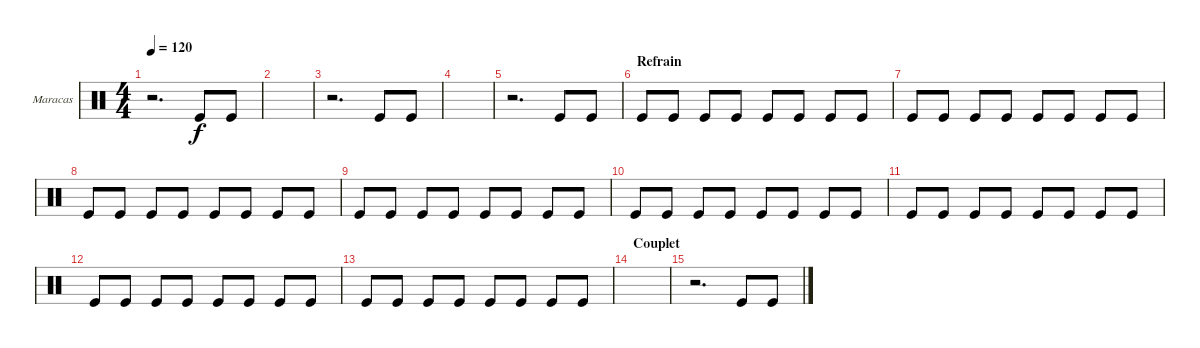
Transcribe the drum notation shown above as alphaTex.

\defaultSystemsLayout 4
\bracketExtendMode groupsimilarinstruments
\firstSystemTrackNameOrientation horizontal
\otherSystemsTrackNameOrientation horizontal
\track ("Maracas" "Maracas") {multiBarRest instrument percussion}
\staff {score}
\articulation defaults
\ts (4 4)
\tempo 120
\clef neutral
\ks c
r.2{d dy f} "Kick (hit)".8 "Kick (hit)".8 |
|
r.2{d} "Kick (hit)".8 "Kick (hit)".8 |
|
r.2{d} "Kick (hit)".8 "Kick (hit)".8 |
\section ("" "Refrain")
"Kick (hit)".8 "Kick (hit)".8 "Kick (hit)".8 "Kick (hit)".8 "Kick (hit)".8 "Kick (hit)".8 "Kick (hit)".8 "Kick (hit)".8 |
"Kick (hit)".8 "Kick (hit)".8 "Kick (hit)".8 "Kick (hit)".8 "Kick (hit)".8 "Kick (hit)".8 "Kick (hit)".8 "Kick (hit)".8 |
"Kick (hit)".8 "Kick (hit)".8 "Kick (hit)".8 "Kick (hit)".8 "Kick (hit)".8 "Kick (hit)".8 "Kick (hit)".8 "Kick (hit)".8 |
"Kick (hit)".8 "Kick (hit)".8 "Kick (hit)".8 "Kick (hit)".8 "Kick (hit)".8 "Kick (hit)".8 "Kick (hit)".8 "Kick (hit)".8 |
"Kick (hit)".8 "Kick (hit)".8 "Kick (hit)".8 "Kick (hit)".8 "Kick (hit)".8 "Kick (hit)".8 "Kick (hit)".8 "Kick (hit)".8 |
"Kick (hit)".8 "Kick (hit)".8 "Kick (hit)".8 "Kick (hit)".8 "Kick (hit)".8 "Kick (hit)".8 "Kick (hit)".8 "Kick (hit)".8 |
"Kick (hit)".8 "Kick (hit)".8 "Kick (hit)".8 "Kick (hit)".8 "Kick (hit)".8 "Kick (hit)".8 "Kick (hit)".8 "Kick (hit)".8 |
"Kick (hit)".8 "Kick (hit)".8 "Kick (hit)".8 "Kick (hit)".8 "Kick (hit)".8 "Kick (hit)".8 "Kick (hit)".8 "Kick (hit)".8 |
\section ("" "Couplet")
|
r.2{d} "Kick (hit)".8 "Kick (hit)".8
